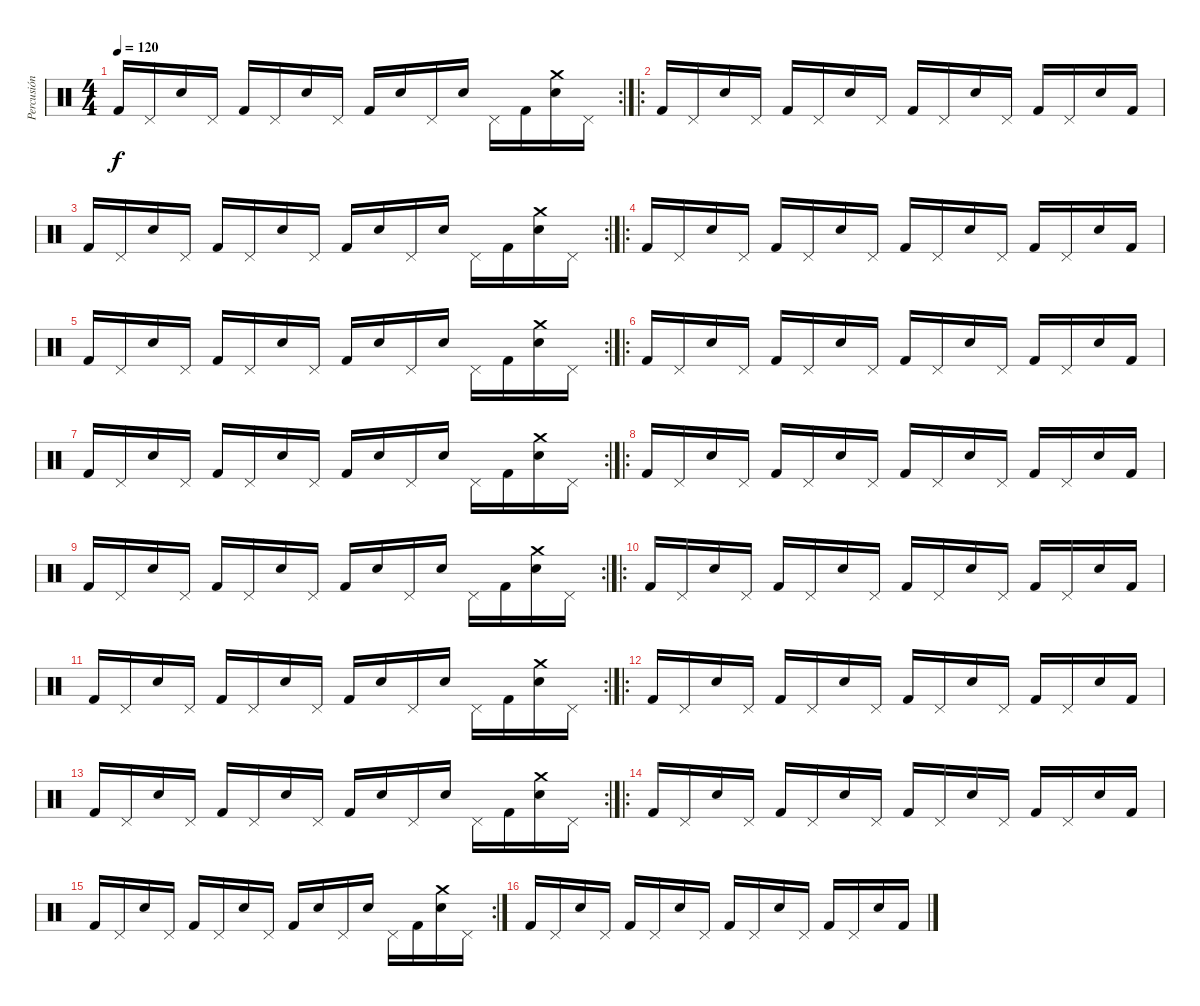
\track ("Percusión" "Percusión") {instrument percussion}
\staff {score}
\articulation defaults
\rc 2
\ts (4 4)
\tempo 120
\clef neutral
\ks c "Kick (hit) 2".16{dy f} "Pedal Hi-Hat (hit)".16 "Snare (hit) 2".16 "Pedal Hi-Hat (hit)".16 "Kick (hit) 2".16 "Pedal Hi-Hat (hit)".16 "Snare (hit) 2".16 "Pedal Hi-Hat (hit)".16 "Kick (hit) 2".16 "Snare (hit) 2".16 "Pedal Hi-Hat (hit)".16 "Snare (hit) 2".16 "Pedal Hi-Hat (hit)".16 "Kick (hit) 2".16
("Snare (hit) 2" "Crash medium (hit)").16 "Pedal Hi-Hat (hit)".16 |
\ro "Kick (hit) 2".16 "Pedal Hi-Hat (hit)".16 "Snare (hit) 2".16 "Pedal Hi-Hat (hit)".16 "Kick (hit) 2".16 "Pedal Hi-Hat (hit)".16 "Snare (hit) 2".16 "Pedal Hi-Hat (hit)".16 "Kick (hit) 2".16 "Pedal Hi-Hat (hit)".16 "Snare (hit) 2".16 "Pedal Hi-Hat (hit)".16 "Kick (hit) 2".16 "Pedal Hi-Hat (hit)".16 "Snare (hit) 2".16 "Kick (hit) 2".16
|
\rc 2 "Kick (hit) 2".16 "Pedal Hi-Hat (hit)".16 "Snare (hit) 2".16 "Pedal Hi-Hat (hit)".16 "Kick (hit) 2".16 "Pedal Hi-Hat (hit)".16 "Snare (hit) 2".16 "Pedal Hi-Hat (hit)".16 "Kick (hit) 2".16 "Snare (hit) 2".16 "Pedal Hi-Hat (hit)".16 "Snare (hit) 2".16 "Pedal Hi-Hat (hit)".16 "Kick (hit) 2".16
("Snare (hit) 2" "Crash medium (hit)").16 "Pedal Hi-Hat (hit)".16 |
\ro "Kick (hit) 2".16 "Pedal Hi-Hat (hit)".16 "Snare (hit) 2".16 "Pedal Hi-Hat (hit)".16 "Kick (hit) 2".16 "Pedal Hi-Hat (hit)".16 "Snare (hit) 2".16 "Pedal Hi-Hat (hit)".16 "Kick (hit) 2".16 "Pedal Hi-Hat (hit)".16 "Snare (hit) 2".16 "Pedal Hi-Hat (hit)".16 "Kick (hit) 2".16 "Pedal Hi-Hat (hit)".16 "Snare (hit) 2".16 "Kick (hit) 2".16
|
\rc 2 "Kick (hit) 2".16 "Pedal Hi-Hat (hit)".16 "Snare (hit) 2".16 "Pedal Hi-Hat (hit)".16 "Kick (hit) 2".16 "Pedal Hi-Hat (hit)".16 "Snare (hit) 2".16 "Pedal Hi-Hat (hit)".16 "Kick (hit) 2".16 "Snare (hit) 2".16 "Pedal Hi-Hat (hit)".16 "Snare (hit) 2".16 "Pedal Hi-Hat (hit)".16 "Kick (hit) 2".16
("Snare (hit) 2" "Crash medium (hit)").16 "Pedal Hi-Hat (hit)".16 |
\ro "Kick (hit) 2".16 "Pedal Hi-Hat (hit)".16 "Snare (hit) 2".16 "Pedal Hi-Hat (hit)".16 "Kick (hit) 2".16 "Pedal Hi-Hat (hit)".16 "Snare (hit) 2".16 "Pedal Hi-Hat (hit)".16 "Kick (hit) 2".16 "Pedal Hi-Hat (hit)".16 "Snare (hit) 2".16 "Pedal Hi-Hat (hit)".16 "Kick (hit) 2".16 "Pedal Hi-Hat (hit)".16 "Snare (hit) 2".16 "Kick (hit) 2".16
|
\rc 2 "Kick (hit) 2".16 "Pedal Hi-Hat (hit)".16 "Snare (hit) 2".16 "Pedal Hi-Hat (hit)".16 "Kick (hit) 2".16 "Pedal Hi-Hat (hit)".16 "Snare (hit) 2".16 "Pedal Hi-Hat (hit)".16 "Kick (hit) 2".16 "Snare (hit) 2".16 "Pedal Hi-Hat (hit)".16 "Snare (hit) 2".16 "Pedal Hi-Hat (hit)".16 "Kick (hit) 2".16
("Snare (hit) 2" "Crash medium (hit)").16 "Pedal Hi-Hat (hit)".16 |
\ro "Kick (hit) 2".16 "Pedal Hi-Hat (hit)".16 "Snare (hit) 2".16 "Pedal Hi-Hat (hit)".16 "Kick (hit) 2".16 "Pedal Hi-Hat (hit)".16 "Snare (hit) 2".16 "Pedal Hi-Hat (hit)".16 "Kick (hit) 2".16 "Pedal Hi-Hat (hit)".16 "Snare (hit) 2".16 "Pedal Hi-Hat (hit)".16 "Kick (hit) 2".16 "Pedal Hi-Hat (hit)".16 "Snare (hit) 2".16 "Kick (hit) 2".16
|
\rc 2 "Kick (hit) 2".16 "Pedal Hi-Hat (hit)".16 "Snare (hit) 2".16 "Pedal Hi-Hat (hit)".16 "Kick (hit) 2".16 "Pedal Hi-Hat (hit)".16 "Snare (hit) 2".16 "Pedal Hi-Hat (hit)".16 "Kick (hit) 2".16 "Snare (hit) 2".16 "Pedal Hi-Hat (hit)".16 "Snare (hit) 2".16 "Pedal Hi-Hat (hit)".16 "Kick (hit) 2".16
("Snare (hit) 2" "Crash medium (hit)").16 "Pedal Hi-Hat (hit)".16 |
\ro "Kick (hit) 2".16 "Pedal Hi-Hat (hit)".16 "Snare (hit) 2".16 "Pedal Hi-Hat (hit)".16 "Kick (hit) 2".16 "Pedal Hi-Hat (hit)".16 "Snare (hit) 2".16 "Pedal Hi-Hat (hit)".16 "Kick (hit) 2".16 "Pedal Hi-Hat (hit)".16 "Snare (hit) 2".16 "Pedal Hi-Hat (hit)".16 "Kick (hit) 2".16 "Pedal Hi-Hat (hit)".16 "Snare (hit) 2".16 "Kick (hit) 2".16
|
\rc 2 "Kick (hit) 2".16 "Pedal Hi-Hat (hit)".16 "Snare (hit) 2".16 "Pedal Hi-Hat (hit)".16 "Kick (hit) 2".16 "Pedal Hi-Hat (hit)".16 "Snare (hit) 2".16 "Pedal Hi-Hat (hit)".16 "Kick (hit) 2".16 "Snare (hit) 2".16 "Pedal Hi-Hat (hit)".16 "Snare (hit) 2".16 "Pedal Hi-Hat (hit)".16 "Kick (hit) 2".16
("Snare (hit) 2" "Crash medium (hit)").16 "Pedal Hi-Hat (hit)".16 |
\ro "Kick (hit) 2".16 "Pedal Hi-Hat (hit)".16 "Snare (hit) 2".16 "Pedal Hi-Hat (hit)".16 "Kick (hit) 2".16 "Pedal Hi-Hat (hit)".16 "Snare (hit) 2".16 "Pedal Hi-Hat (hit)".16 "Kick (hit) 2".16 "Pedal Hi-Hat (hit)".16 "Snare (hit) 2".16 "Pedal Hi-Hat (hit)".16 "Kick (hit) 2".16 "Pedal Hi-Hat (hit)".16 "Snare (hit) 2".16 "Kick (hit) 2".16
|
\rc 2 "Kick (hit) 2".16 "Pedal Hi-Hat (hit)".16 "Snare (hit) 2".16 "Pedal Hi-Hat (hit)".16 "Kick (hit) 2".16 "Pedal Hi-Hat (hit)".16 "Snare (hit) 2".16 "Pedal Hi-Hat (hit)".16 "Kick (hit) 2".16 "Snare (hit) 2".16 "Pedal Hi-Hat (hit)".16 "Snare (hit) 2".16 "Pedal Hi-Hat (hit)".16 "Kick (hit) 2".16
("Snare (hit) 2" "Crash medium (hit)").16 "Pedal Hi-Hat (hit)".16 |
\ro "Kick (hit) 2".16 "Pedal Hi-Hat (hit)".16 "Snare (hit) 2".16 "Pedal Hi-Hat (hit)".16 "Kick (hit) 2".16 "Pedal Hi-Hat (hit)".16 "Snare (hit) 2".16 "Pedal Hi-Hat (hit)".16 "Kick (hit) 2".16 "Pedal Hi-Hat (hit)".16 "Snare (hit) 2".16 "Pedal Hi-Hat (hit)".16 "Kick (hit) 2".16 "Pedal Hi-Hat (hit)".16 "Snare (hit) 2".16 "Kick (hit) 2".16
|
\rc 2 "Kick (hit) 2".16 "Pedal Hi-Hat (hit)".16 "Snare (hit) 2".16 "Pedal Hi-Hat (hit)".16 "Kick (hit) 2".16 "Pedal Hi-Hat (hit)".16 "Snare (hit) 2".16 "Pedal Hi-Hat (hit)".16 "Kick (hit) 2".16 "Snare (hit) 2".16 "Pedal Hi-Hat (hit)".16 "Snare (hit) 2".16 "Pedal Hi-Hat (hit)".16 "Kick (hit) 2".16
("Snare (hit) 2" "Crash medium (hit)").16 "Pedal Hi-Hat (hit)".16 |
"Kick (hit) 2".16 "Pedal Hi-Hat (hit)".16 "Snare (hit) 2".16 "Pedal Hi-Hat (hit)".16 "Kick (hit) 2".16 "Pedal Hi-Hat (hit)".16 "Snare (hit) 2".16 "Pedal Hi-Hat (hit)".16 "Kick (hit) 2".16 "Pedal Hi-Hat (hit)".16 "Snare (hit) 2".16 "Pedal Hi-Hat (hit)".16 "Kick (hit) 2".16 "Pedal Hi-Hat (hit)".16 "Snare (hit) 2".16 "Kick (hit) 2".16
